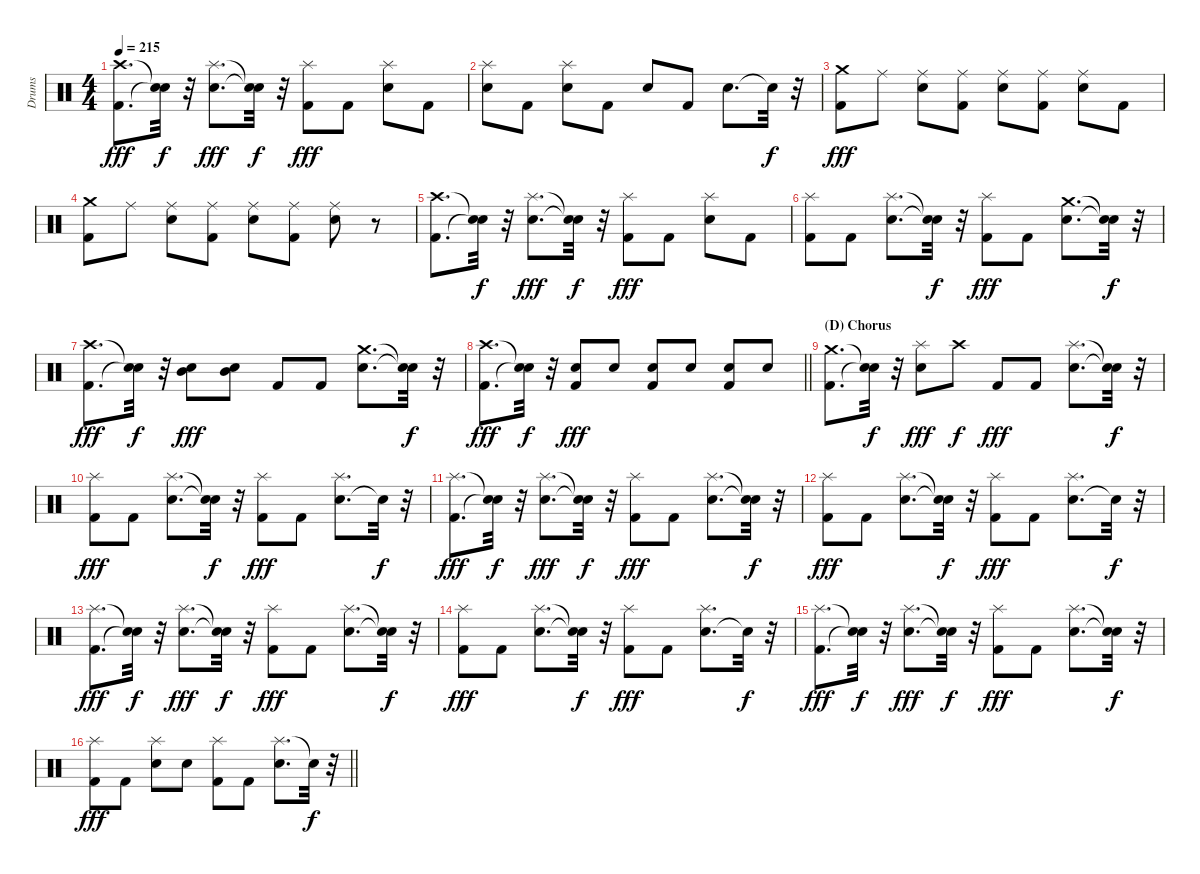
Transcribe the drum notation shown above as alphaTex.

\track ("Drums" "Drums") {instrument percussion}
\staff {score}
\articulation defaults
\ts (4 4)
\tempo 215
\clef neutral
\ks c
("Crash high (hit)" "Kick (hit) 2").8{d dy fff} ("Snare (hit)"{t} "Snare (hit)"{t}).32{dy f} r.32 ("Splash (hit)" "Electric Snare (hit)").8{d dy fff} ("Snare (hit)"{t} "Snare (hit)"{t}).32{dy f} r.32 ("Splash (hit)" "Kick (hit) 2").8{dy fff} "Kick (hit) 2".8 ("Electric Snare (hit)" "Splash (hit)").8 "Kick (hit) 2".8 |
("Electric Snare (hit)" "Splash (hit)").8 "Kick (hit) 2".8 ("Electric Snare (hit)" "Splash (hit)").8 "Kick (hit) 2".8 "Electric Snare (hit)".8 "Kick (hit) 2".8 "Electric Snare (hit)".8{d} "Snare (hit)"{t}.32{dy f} r.32 |
("Kick (hit) 2" "Crash medium (hit)").8{dy fff} "Ride (middle)".8 ("Electric Snare (hit)" "Ride (middle)").8 ("Kick (hit) 2" "Ride (middle)").8 ("Electric Snare (hit)" "Ride (middle)").8 ("Ride (middle)" "Kick (hit) 2").8 ("Electric Snare (hit)" "Ride (middle)").8 "Kick (hit) 2".8 |
("Crash medium (hit)" "Kick (hit) 2").8 "Ride (middle)".8 ("Ride (middle)" "Electric Snare (hit)").8 ("Kick (hit) 2" "Ride (middle)").8 ("Ride (middle)" "Electric Snare (hit)").8 ("Kick (hit) 2" "Ride (middle)").8 ("Electric Snare (hit)" "Ride (middle)").8 r.8 |
("Kick (hit) 2" "Crash high (hit)").8{d} ("Snare (hit)"{t} "Snare (hit)"{t}).32{dy f} r.32 ("Electric Snare (hit)" "Splash (hit)").8{d dy fff} ("Snare (hit)"{t} "Snare (hit)"{t}).32{dy f} r.32 ("Splash (hit)" "Kick (hit) 2").8{dy fff} "Kick (hit) 2".8 ("Electric Snare (hit)" "Splash (hit)").8 "Kick (hit) 2".8 |
("Kick (hit) 2" "Splash (hit)").8 "Kick (hit) 2".8 ("Splash (hit)" "Electric Snare (hit)").8{d} ("Snare (hit)"{t} "Snare (hit)"{t}).32{dy f} r.32 ("Splash (hit)" "Kick (hit) 2").8{dy fff} "Kick (hit) 2".8 ("Electric Snare (hit)" "Crash medium (hit)").8{d} ("Snare (hit)"{t} "Snare (hit)"{t}).32{dy f} r.32 |
("Kick (hit) 2" "Crash high (hit)").8{d dy fff} ("Snare (hit)"{t} "Snare (hit)"{t}).32{dy f} r.32 ("Electric Snare (hit)" "Mid Tom (hit)").8{dy fff} ("Mid Tom (hit)" "Electric Snare (hit)").8 "Kick (hit) 2".8 "Kick (hit) 2".8 ("Electric Snare (hit)" "Crash medium (hit)").8{d} ("Snare (hit)"{t} "Snare (hit)"{t}).32{dy f} r.32 |
\barLineRight lightlight
("Crash high (hit)" "Kick (hit) 2").8{d dy fff} ("Snare (hit)"{t} "Snare (hit)"{t}).32{dy f} r.32 ("Kick (hit) 2" "Electric Snare (hit)").8{dy fff} "Electric Snare (hit)".8 ("Kick (hit) 2" "Electric Snare (hit)").8 "Electric Snare (hit)".8 ("Electric Snare (hit)" "Kick (hit) 2").8 "Electric Snare (hit)".8 |
\section ("" "(D) Chorus")
("Crash medium (hit)" "Kick (hit) 2").8{d} ("Snare (hit)"{t} "Snare (hit)"{t}).32{dy f} r.32 ("Electric Snare (hit)" "Splash (hit)").8{dy fff} "Crash high (hit)".8{dy f} "Kick (hit) 2".8{dy fff} "Kick (hit) 2".8 ("Splash (hit)" "Electric Snare (hit)").8{d} ("Snare (hit)"{t} "Snare (hit)"{t}).32{dy f} r.32 |
("Kick (hit) 2" "Splash (hit)").8{dy fff} "Kick (hit) 2".8 ("Splash (hit)" "Electric Snare (hit)").8{d} ("Snare (hit)"{t} "Snare (hit)"{t}).32{dy f} r.32 ("Kick (hit) 2" "Splash (hit)").8{dy fff} "Kick (hit) 2".8 ("Electric Snare (hit)" "Splash (hit)").8{d} "Snare (hit)"{t}.32{dy f} r.32 |
("Kick (hit) 2" "Splash (hit)").8{d dy fff} ("Snare (hit)"{t} "Snare (hit)"{t}).32{dy f} r.32 ("Splash (hit)" "Electric Snare (hit)").8{d dy fff} ("Snare (hit)"{t} "Snare (hit)"{t}).32{dy f} r.32 ("Splash (hit)" "Kick (hit) 2").8{dy fff} "Kick (hit) 2".8 ("Electric Snare (hit)" "Splash (hit)").8{d} ("Snare (hit)"{t} "Snare (hit)"{t}).32{dy f} r.32 |
("Splash (hit)" "Kick (hit) 2").8{dy fff} "Kick (hit) 2".8 ("Electric Snare (hit)" "Splash (hit)").8{d} ("Snare (hit)"{t} "Snare (hit)"{t}).32{dy f} r.32 ("Splash (hit)" "Kick (hit) 2").8{dy fff} "Kick (hit) 2".8 ("Electric Snare (hit)" "Splash (hit)").8{d} "Snare (hit)"{t}.32{dy f} r.32 |
("Splash (hit)" "Kick (hit) 2").8{d dy fff} ("Snare (hit)"{t} "Snare (hit)"{t}).32{dy f} r.32 ("Splash (hit)" "Electric Snare (hit)").8{d dy fff} ("Snare (hit)"{t} "Snare (hit)"{t}).32{dy f} r.32 ("Splash (hit)" "Kick (hit) 2").8{dy fff} "Kick (hit) 2".8 ("Splash (hit)" "Electric Snare (hit)").8{d} ("Snare (hit)"{t} "Snare (hit)"{t}).32{dy f} r.32 |
("Kick (hit) 2" "Splash (hit)").8{dy fff} "Kick (hit) 2".8 ("Electric Snare (hit)" "Splash (hit)").8{d} ("Snare (hit)"{t} "Snare (hit)"{t}).32{dy f} r.32 ("Splash (hit)" "Kick (hit) 2").8{dy fff} "Kick (hit) 2".8 ("Electric Snare (hit)" "Splash (hit)").8{d} "Snare (hit)"{t}.32{dy f} r.32 |
("Splash (hit)" "Kick (hit) 2").8{d dy fff} ("Snare (hit)"{t} "Snare (hit)"{t}).32{dy f} r.32 ("Splash (hit)" "Electric Snare (hit)").8{d dy fff} ("Snare (hit)"{t} "Snare (hit)"{t}).32{dy f} r.32 ("Kick (hit) 2" "Splash (hit)").8{dy fff} "Kick (hit) 2".8 ("Splash (hit)" "Electric Snare (hit)").8{d} ("Snare (hit)"{t} "Snare (hit)"{t}).32{dy f} r.32 |
\barLineRight lightlight
("Kick (hit) 2" "Splash (hit)").8{dy fff} "Kick (hit) 2".8 ("Electric Snare (hit)" "Splash (hit)").8 "Electric Snare (hit)".8 ("Splash (hit)" "Kick (hit) 2").8 "Kick (hit) 2".8 ("Splash (hit)" "Electric Snare (hit)").8{d} "Snare (hit)"{t}.32{dy f} r.32
